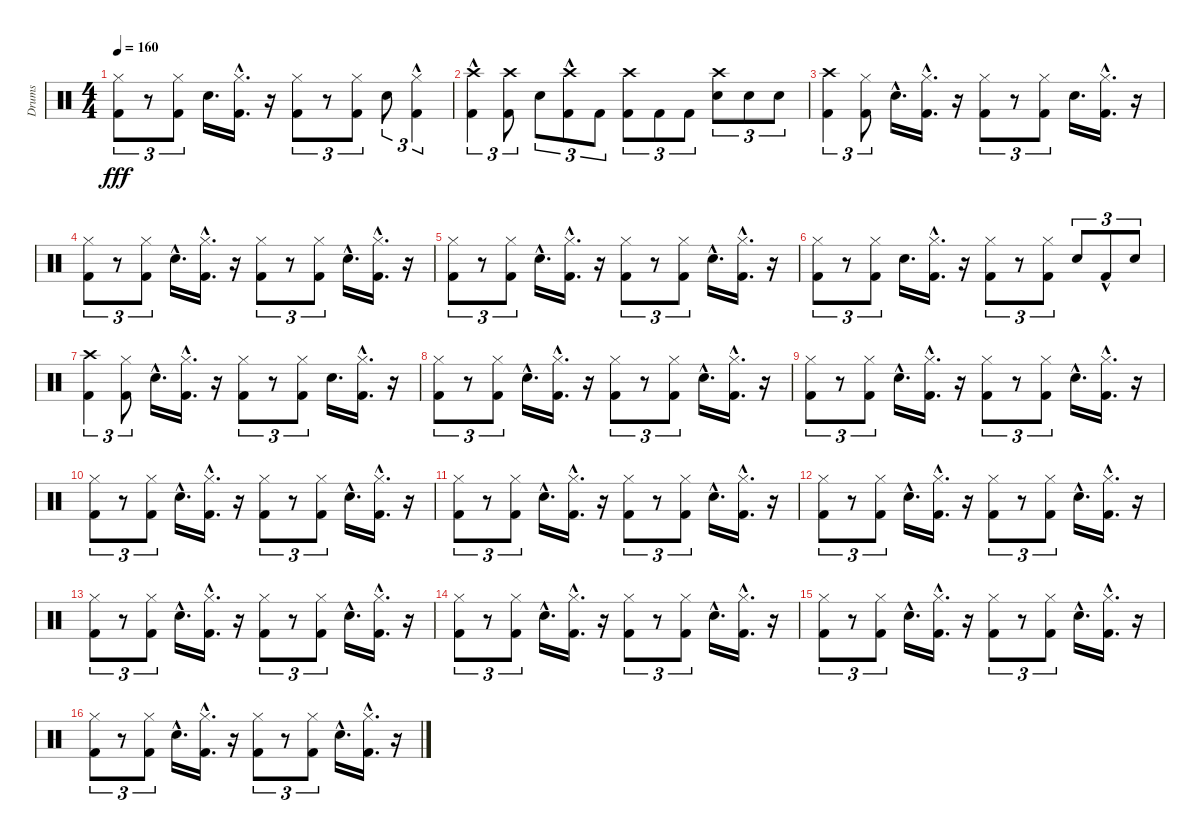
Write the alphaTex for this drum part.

\track ("Drums" "Drums") {instrument percussion}
\staff {score}
\articulation defaults
\ts (4 4)
\tempo 160
\clef neutral
\ks c
("Hi-Hat (closed)" "Kick (hit) 2").8{tu (3 2) dy fff} r.8{tu (3 2)} ("Hi-Hat (closed)" "Kick (hit) 2").8{tu (3 2)} "Snare (hit) 2".16{d} ("Hi-Hat (closed)"{hac} "Kick (hit) 2"{hac}).16{d} r.16 ("Hi-Hat (closed)" "Kick (hit) 2").8{tu (3 2)} r.8{tu (3 2)} ("Hi-Hat (closed)" "Kick (hit) 2").8{tu (3 2)} "Snare (hit) 2".8{tu (3 2)} ("Hi-Hat (closed)" "Kick (hit) 2"{hac}).4{tu (3 2)} |
("Kick (hit) 2"{hac} "Crash high (hit)").4{tu (3 2)} ("Kick (hit) 2" "Crash high (hit)").8{tu (3 2)} "Snare (hit) 2".8{tu (3 2)} ("Kick (hit) 2"{hac} "Crash high (hit)").8{tu (3 2)} "Kick (hit) 2".8{tu (3 2)} ("Kick (hit) 2" "Crash high (hit)").8{tu (3 2)} "Kick (hit) 2".8{tu (3 2)} "Kick (hit) 2".8{tu (3 2)} ("Snare (hit) 2" "Crash high (hit)").8{tu (3 2)} "Snare (hit) 2".8{tu (3 2)} "Snare (hit) 2".8{tu (3 2)} |
("Kick (hit) 2" "Crash high (hit)").4{tu (3 2)} ("Kick (hit) 2" "Hi-Hat (closed)").8{tu (3 2)} "Snare (hit) 2"{hac}.16{d} ("Kick (hit) 2"{hac} "Hi-Hat (closed)"{hac}).16{d} r.16 ("Kick (hit) 2" "Hi-Hat (closed)").8{tu (3 2)} r.8{tu (3 2)} ("Kick (hit) 2" "Hi-Hat (closed)").8{tu (3 2)} "Snare (hit) 2".16{d} ("Kick (hit) 2"{hac} "Hi-Hat (closed)"{hac}).16{d} r.16 |
("Kick (hit) 2" "Hi-Hat (closed)").8{tu (3 2)} r.8{tu (3 2)} ("Kick (hit) 2" "Hi-Hat (closed)").8{tu (3 2)} "Snare (hit) 2"{hac}.16{d} ("Kick (hit) 2"{hac} "Hi-Hat (closed)"{hac}).16{d} r.16 ("Kick (hit) 2" "Hi-Hat (closed)").8{tu (3 2)} r.8{tu (3 2)} ("Kick (hit) 2" "Hi-Hat (closed)").8{tu (3 2)} "Snare (hit) 2"{hac}.16{d} ("Kick (hit) 2"{hac} "Hi-Hat (closed)"{hac}).16{d} r.16 |
("Kick (hit) 2" "Hi-Hat (closed)").8{tu (3 2)} r.8{tu (3 2)} ("Kick (hit) 2" "Hi-Hat (closed)").8{tu (3 2)} "Snare (hit) 2"{hac}.16{d} ("Kick (hit) 2"{hac} "Hi-Hat (closed)"{hac}).16{d} r.16 ("Kick (hit) 2" "Hi-Hat (closed)").8{tu (3 2)} r.8{tu (3 2)} ("Kick (hit) 2" "Hi-Hat (closed)").8{tu (3 2)} "Snare (hit) 2"{hac}.16{d} ("Kick (hit) 2"{hac} "Hi-Hat (closed)"{hac}).16{d} r.16 |
("Kick (hit) 2" "Hi-Hat (closed)").8{tu (3 2)} r.8{tu (3 2)} ("Kick (hit) 2" "Hi-Hat (closed)").8{tu (3 2)} "Snare (hit) 2".16{d} ("Kick (hit) 2"{hac} "Hi-Hat (closed)"{hac}).16{d} r.16 ("Kick (hit) 2" "Hi-Hat (closed)").8{tu (3 2)} r.8{tu (3 2)} ("Kick (hit) 2" "Hi-Hat (closed)").8{tu (3 2)} "Snare (hit) 2".8{tu (3 2)} "Kick (hit) 2"{hac}.8{tu (3 2)} "Snare (hit) 2".8{tu (3 2)} |
("Kick (hit) 2" "Crash high (hit)").4{tu (3 2)} ("Kick (hit) 2" "Hi-Hat (closed)").8{tu (3 2)} "Snare (hit) 2"{hac}.16{d} ("Kick (hit) 2"{hac} "Hi-Hat (closed)"{hac}).16{d} r.16 ("Kick (hit) 2" "Hi-Hat (closed)").8{tu (3 2)} r.8{tu (3 2)} ("Kick (hit) 2" "Hi-Hat (closed)").8{tu (3 2)} "Snare (hit) 2".16{d} ("Kick (hit) 2"{hac} "Hi-Hat (closed)"{hac}).16{d} r.16 |
("Kick (hit) 2" "Hi-Hat (closed)").8{tu (3 2)} r.8{tu (3 2)} ("Kick (hit) 2" "Hi-Hat (closed)").8{tu (3 2)} "Snare (hit) 2"{hac}.16{d} ("Kick (hit) 2"{hac} "Hi-Hat (closed)"{hac}).16{d} r.16 ("Kick (hit) 2" "Hi-Hat (closed)").8{tu (3 2)} r.8{tu (3 2)} ("Kick (hit) 2" "Hi-Hat (closed)").8{tu (3 2)} "Snare (hit) 2"{hac}.16{d} ("Kick (hit) 2"{hac} "Hi-Hat (closed)"{hac}).16{d} r.16 |
("Kick (hit) 2" "Hi-Hat (closed)").8{tu (3 2)} r.8{tu (3 2)} ("Kick (hit) 2" "Hi-Hat (closed)").8{tu (3 2)} "Snare (hit) 2"{hac}.16{d} ("Kick (hit) 2"{hac} "Hi-Hat (closed)"{hac}).16{d} r.16 ("Kick (hit) 2" "Hi-Hat (closed)").8{tu (3 2)} r.8{tu (3 2)} ("Kick (hit) 2" "Hi-Hat (closed)").8{tu (3 2)} "Snare (hit) 2"{hac}.16{d} ("Kick (hit) 2"{hac} "Hi-Hat (closed)"{hac}).16{d} r.16 |
("Kick (hit) 2" "Hi-Hat (closed)").8{tu (3 2)} r.8{tu (3 2)} ("Kick (hit) 2" "Hi-Hat (closed)").8{tu (3 2)} "Snare (hit) 2"{hac}.16{d} ("Kick (hit) 2"{hac} "Hi-Hat (closed)"{hac}).16{d} r.16 ("Kick (hit) 2" "Hi-Hat (closed)").8{tu (3 2)} r.8{tu (3 2)} ("Kick (hit) 2" "Hi-Hat (closed)").8{tu (3 2)} "Snare (hit) 2"{hac}.16{d} ("Kick (hit) 2"{hac} "Hi-Hat (closed)"{hac}).16{d} r.16 |
("Kick (hit) 2" "Hi-Hat (closed)").8{tu (3 2)} r.8{tu (3 2)} ("Kick (hit) 2" "Hi-Hat (closed)").8{tu (3 2)} "Snare (hit) 2"{hac}.16{d} ("Kick (hit) 2"{hac} "Hi-Hat (closed)"{hac}).16{d} r.16 ("Kick (hit) 2" "Hi-Hat (closed)").8{tu (3 2)} r.8{tu (3 2)} ("Kick (hit) 2" "Hi-Hat (closed)").8{tu (3 2)} "Snare (hit) 2"{hac}.16{d} ("Kick (hit) 2"{hac} "Hi-Hat (closed)"{hac}).16{d} r.16 |
("Kick (hit) 2" "Hi-Hat (closed)").8{tu (3 2)} r.8{tu (3 2)} ("Kick (hit) 2" "Hi-Hat (closed)").8{tu (3 2)} "Snare (hit) 2"{hac}.16{d} ("Kick (hit) 2"{hac} "Hi-Hat (closed)"{hac}).16{d} r.16 ("Kick (hit) 2" "Hi-Hat (closed)").8{tu (3 2)} r.8{tu (3 2)} ("Kick (hit) 2" "Hi-Hat (closed)").8{tu (3 2)} "Snare (hit) 2"{hac}.16{d} ("Kick (hit) 2"{hac} "Hi-Hat (closed)"{hac}).16{d} r.16 |
("Kick (hit) 2" "Hi-Hat (closed)").8{tu (3 2)} r.8{tu (3 2)} ("Kick (hit) 2" "Hi-Hat (closed)").8{tu (3 2)} "Snare (hit) 2"{hac}.16{d} ("Kick (hit) 2"{hac} "Hi-Hat (closed)"{hac}).16{d} r.16 ("Kick (hit) 2" "Hi-Hat (closed)").8{tu (3 2)} r.8{tu (3 2)} ("Kick (hit) 2" "Hi-Hat (closed)").8{tu (3 2)} "Snare (hit) 2"{hac}.16{d} ("Kick (hit) 2"{hac} "Hi-Hat (closed)"{hac}).16{d} r.16 |
("Kick (hit) 2" "Hi-Hat (closed)").8{tu (3 2)} r.8{tu (3 2)} ("Kick (hit) 2" "Hi-Hat (closed)").8{tu (3 2)} "Snare (hit) 2"{hac}.16{d} ("Kick (hit) 2"{hac} "Hi-Hat (closed)"{hac}).16{d} r.16 ("Kick (hit) 2" "Hi-Hat (closed)").8{tu (3 2)} r.8{tu (3 2)} ("Kick (hit) 2" "Hi-Hat (closed)").8{tu (3 2)} "Snare (hit) 2"{hac}.16{d} ("Kick (hit) 2"{hac} "Hi-Hat (closed)"{hac}).16{d} r.16 |
("Kick (hit) 2" "Hi-Hat (closed)").8{tu (3 2)} r.8{tu (3 2)} ("Kick (hit) 2" "Hi-Hat (closed)").8{tu (3 2)} "Snare (hit) 2"{hac}.16{d} ("Kick (hit) 2"{hac} "Hi-Hat (closed)"{hac}).16{d} r.16 ("Kick (hit) 2" "Hi-Hat (closed)").8{tu (3 2)} r.8{tu (3 2)} ("Kick (hit) 2" "Hi-Hat (closed)").8{tu (3 2)} "Snare (hit) 2"{hac}.16{d} ("Kick (hit) 2"{hac} "Hi-Hat (closed)"{hac}).16{d} r.16 |
("Kick (hit) 2" "Hi-Hat (closed)").8{tu (3 2)} r.8{tu (3 2)} ("Kick (hit) 2" "Hi-Hat (closed)").8{tu (3 2)} "Snare (hit) 2"{hac}.16{d} ("Kick (hit) 2"{hac} "Hi-Hat (closed)"{hac}).16{d} r.16 ("Kick (hit) 2" "Hi-Hat (closed)").8{tu (3 2)} r.8{tu (3 2)} ("Kick (hit) 2" "Hi-Hat (closed)").8{tu (3 2)} "Snare (hit) 2"{hac}.16{d} ("Kick (hit) 2"{hac} "Hi-Hat (closed)"{hac}).16{d} r.16
